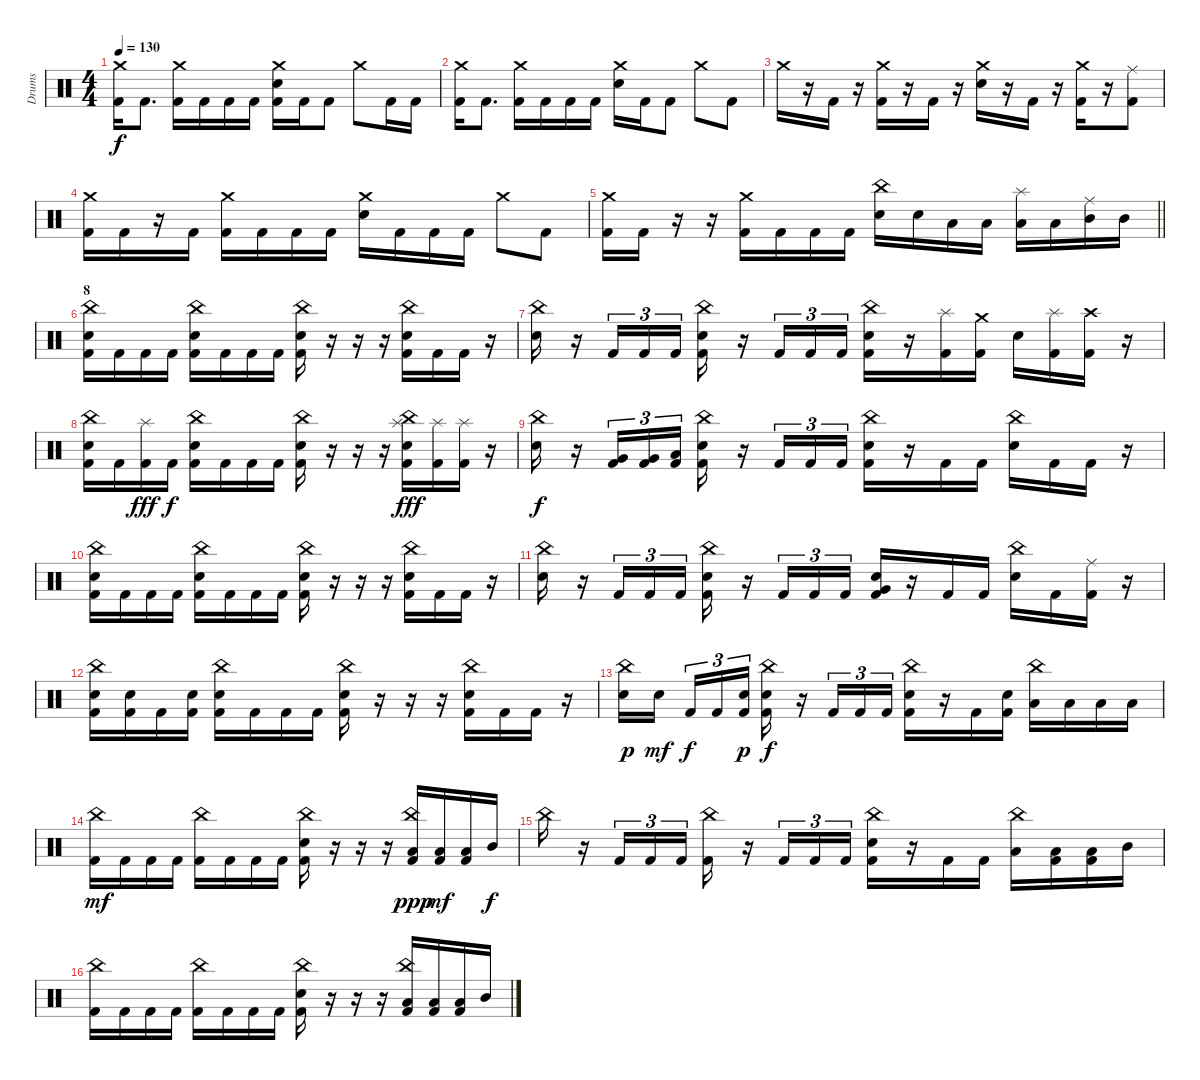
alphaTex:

\track ("Drums" "Drums") {instrument percussion}
\staff {score}
\articulation defaults
\ts (4 4)
\tempo 130
\clef neutral
\ks c
("Crash medium (hit)" "Kick (hit) 2").16{dy f} "Kick (hit) 2".8{d} ("Crash medium (hit)" "Kick (hit) 2").16 "Kick (hit) 2".16 "Kick (hit) 2".16 "Kick (hit) 2".16 ("Crash medium (hit)" "Electric Snare (hit)" "Kick (hit) 2").16 "Kick (hit) 2".16 "Kick (hit) 2".8 "Crash medium (hit)".8 "Kick (hit) 2".16 "Kick (hit) 2".16 |
("Crash medium (hit)" "Kick (hit) 2").16 "Kick (hit) 2".8{d} ("Crash medium (hit)" "Kick (hit) 2").16 "Kick (hit) 2".16 "Kick (hit) 2".16 "Kick (hit) 2".16 ("Crash medium (hit)" "Electric Snare (hit)").16 "Kick (hit) 2".16 "Kick (hit) 2".8 "Crash medium (hit)".8 "Kick (hit) 2".8 |
"Crash medium (hit)".16 r.16 "Kick (hit) 2".16 r.16 ("Crash medium (hit)" "Kick (hit) 2").16 r.16 "Kick (hit) 2".16 r.16 ("Crash medium (hit)" "Electric Snare (hit)").16 r.16 "Kick (hit) 2".16 r.16 ("Crash medium (hit)" "Kick (hit) 2").16 r.16 ("Ride (middle)" "Kick (hit) 2").8 |
("Crash medium (hit)" "Kick (hit) 2").16 "Kick (hit) 2".16 r.16 "Kick (hit) 2".16 ("Crash medium (hit)" "Kick (hit) 2").16 "Kick (hit) 2".16 "Kick (hit) 2".16 "Kick (hit) 2".16 ("Crash medium (hit)" "Electric Snare (hit)").16 "Kick (hit) 2".16 "Kick (hit) 2".16 "Kick (hit) 2".16 "Crash medium (hit)".8 "Kick (hit) 2".8 |
\barLineRight lightlight
("Crash medium (hit)" "Kick (hit) 2").16 "Kick (hit) 2".16 r.16 r.16 ("Crash medium (hit)" "Kick (hit) 2").16 "Kick (hit) 2".16 "Kick (hit) 2".16 "Kick (hit) 2".16 ("China (hit)" "Electric Snare (hit)").16 "Electric Snare (hit)".16 "Low Floor Tom (hit)".16 "Low Floor Tom (hit)".16 ("Splash (hit)" "Low Tom (hit)").16 "Low Tom (hit)".16 ("Ride (middle)" "Mid Tom (hit)").16 "Mid Tom (hit)".16 |
\section ("" "8")
("China (hit)" "Electric Snare (hit)" "Kick (hit) 2").16 "Kick (hit) 2".16 "Kick (hit) 2".16 "Kick (hit) 2".16 ("China (hit)" "Electric Snare (hit)" "Kick (hit) 2").16 "Kick (hit) 2".16 "Kick (hit) 2".16 "Kick (hit) 2".16 ("China (hit)" "Electric Snare (hit)" "Kick (hit) 2").16 r.16 r.16 r.16 ("China (hit)" "Electric Snare (hit)" "Kick (hit) 2").16 "Kick (hit) 2".16 "Kick (hit) 2".16 r.16 |
("China (hit)" "Electric Snare (hit)").16 r.16 "Kick (hit) 2".16{tu (3 2)} "Kick (hit) 2".16{tu (3 2)} "Kick (hit) 2".16{tu (3 2)} ("China (hit)" "Electric Snare (hit)" "Kick (hit) 2").16 r.16 "Kick (hit) 2".16{tu (3 2)} "Kick (hit) 2".16{tu (3 2)} "Kick (hit) 2".16{tu (3 2)} ("China (hit)" "Electric Snare (hit)" "Kick (hit) 2").16 r.16 ("Splash (hit)" "Kick (hit) 2").16 ("Crash medium (hit)" "Kick (hit) 2").16 "Electric Snare (hit)".16 ("Splash (hit)" "Kick (hit) 2").16 ("Crash high (hit)" "Kick (hit) 2").16 r.16 |
("China (hit)" "Electric Snare (hit)" "Kick (hit) 2").16 "Kick (hit) 2".16 ("Splash (hit)" "Kick (hit) 2").16{dy fff} "Kick (hit) 2".16{dy f} ("China (hit)" "Electric Snare (hit)" "Kick (hit) 2").16 "Kick (hit) 2".16 "Kick (hit) 2".16 "Kick (hit) 2".16 ("China (hit)" "Electric Snare (hit)" "Kick (hit) 2").16 r.16 r.16 r.16 ("Splash (hit)" "Electric Snare (hit)" "Kick (hit) 2" "China (hit)").16{dy fff} ("Splash (hit)" "Kick (hit) 2").16 ("Splash (hit)" "Kick (hit) 2").16 r.16 |
("China (hit)" "Electric Snare (hit)").16{dy f} r.16 ("Very Low Tom (hit)" "Kick (hit) 2").16{tu (3 2)} ("Very Low Tom (hit)" "Kick (hit) 2").16{tu (3 2)} ("Low Floor Tom (hit)" "Kick (hit) 2").16{tu (3 2)} ("China (hit)" "Electric Snare (hit)" "Kick (hit) 2").16 r.16 "Kick (hit) 2".16{tu (3 2)} "Kick (hit) 2".16{tu (3 2)} "Kick (hit) 2".16{tu (3 2)} ("China (hit)" "Electric Snare (hit)" "Kick (hit) 2").16 r.16 "Kick (hit) 2".16 "Kick (hit) 2".16 ("China (hit)" "Electric Snare (hit)").16 "Kick (hit) 2".16 "Kick (hit) 2".16 r.16 |
("China (hit)" "Electric Snare (hit)" "Kick (hit) 2").16 "Kick (hit) 2".16 "Kick (hit) 2".16 "Kick (hit) 2".16 ("China (hit)" "Electric Snare (hit)" "Kick (hit) 2").16 "Kick (hit) 2".16 "Kick (hit) 2".16 "Kick (hit) 2".16 ("China (hit)" "Electric Snare (hit)" "Kick (hit) 2").16 r.16 r.16 r.16 ("Electric Snare (hit)" "Kick (hit) 2" "China (hit)").16 "Kick (hit) 2".16 "Kick (hit) 2".16 r.16 |
("China (hit)" "Electric Snare (hit)").16 r.16 "Kick (hit) 2".16{tu (3 2)} "Kick (hit) 2".16{tu (3 2)} "Kick (hit) 2".16{tu (3 2)} ("China (hit)" "Electric Snare (hit)" "Kick (hit) 2").16 r.16 "Kick (hit) 2".16{tu (3 2)} "Kick (hit) 2".16{tu (3 2)} "Kick (hit) 2".16{tu (3 2)} ("Very Low Tom (hit)" "Electric Snare (hit)" "Kick (hit) 2").16 r.16 "Kick (hit) 2".16 "Kick (hit) 2".16 ("China (hit)" "Electric Snare (hit)").16 "Kick (hit) 2".16 ("Ride (middle)" "Kick (hit) 2").16 r.16 |
("China (hit)" "Electric Snare (hit)" "Kick (hit) 2").16 ("Electric Snare (hit)" "Kick (hit) 2").16 "Kick (hit) 2".16 ("Electric Snare (hit)" "Kick (hit) 2").16 ("China (hit)" "Electric Snare (hit)" "Kick (hit) 2").16 "Kick (hit) 2".16 "Kick (hit) 2".16 "Kick (hit) 2".16 ("China (hit)" "Electric Snare (hit)" "Kick (hit) 2").16 r.16 r.16 r.16 ("Electric Snare (hit)" "Kick (hit) 2" "China (hit)").16 "Kick (hit) 2".16 "Kick (hit) 2".16 r.16 |
("China (hit)" "Electric Snare (hit)").16{dy p} "Electric Snare (hit)".16{dy mf beam splitsecondary} "Kick (hit) 2".16{tu (3 2) dy f} "Kick (hit) 2".16{tu (3 2)} ("Electric Snare (hit)" "Kick (hit) 2").16{tu (3 2) dy p} ("China (hit)" "Electric Snare (hit)" "Kick (hit) 2").16{dy f} r.16 "Kick (hit) 2".16{tu (3 2)} "Kick (hit) 2".16{tu (3 2)} "Kick (hit) 2".16{tu (3 2)} ("China (hit)" "Electric Snare (hit)" "Kick (hit) 2").16 r.16 "Kick (hit) 2".16 ("Electric Snare (hit)" "Kick (hit) 2").16 ("China (hit)" "Low Tom (hit)").16 "Low Tom (hit)".16 "Low Floor Tom (hit)".16 "Low Floor Tom (hit)".16 |
("China (hit)" "Kick (hit) 2").16{dy mf} "Kick (hit) 2".16 "Kick (hit) 2".16 "Kick (hit) 2".16 ("China (hit)" "Kick (hit) 2").16 "Kick (hit) 2".16 "Kick (hit) 2".16 "Kick (hit) 2".16 ("China (hit)" "Electric Snare (hit)" "Kick (hit) 2").16 r.16 r.16 r.16 ("China (hit)" "Low Floor Tom (hit)" "Kick (hit) 2").16{dy ppp} ("Low Floor Tom (hit)" "Kick (hit) 2").16{dy mf} ("Low Tom (hit)" "Kick (hit) 2").16 "Mid Tom (hit)".16{dy f} |
"China (hit)".16 r.16 "Kick (hit) 2".16{tu (3 2)} "Kick (hit) 2".16{tu (3 2)} "Kick (hit) 2".16{tu (3 2)} ("China (hit)" "Kick (hit) 2").16 r.16 "Kick (hit) 2".16{tu (3 2)} "Kick (hit) 2".16{tu (3 2)} "Kick (hit) 2".16{tu (3 2)} ("China (hit)" "Electric Snare (hit)" "Kick (hit) 2").16 r.16 "Kick (hit) 2".16 "Kick (hit) 2".16 ("China (hit)" "Low Tom (hit)").16 ("Low Tom (hit)" "Kick (hit) 2").16 ("Low Floor Tom (hit)" "Kick (hit) 2").16 "Mid Tom (hit)".16 |
("China (hit)" "Kick (hit) 2").16 "Kick (hit) 2".16 "Kick (hit) 2".16 "Kick (hit) 2".16 ("China (hit)" "Kick (hit) 2").16 "Kick (hit) 2".16 "Kick (hit) 2".16 "Kick (hit) 2".16 ("China (hit)" "Electric Snare (hit)" "Kick (hit) 2").16 r.16 r.16 r.16 ("China (hit)" "Low Floor Tom (hit)" "Kick (hit) 2").16 ("Low Floor Tom (hit)" "Kick (hit) 2").16 ("Low Tom (hit)" "Kick (hit) 2").16 "Mid Tom (hit)".16
